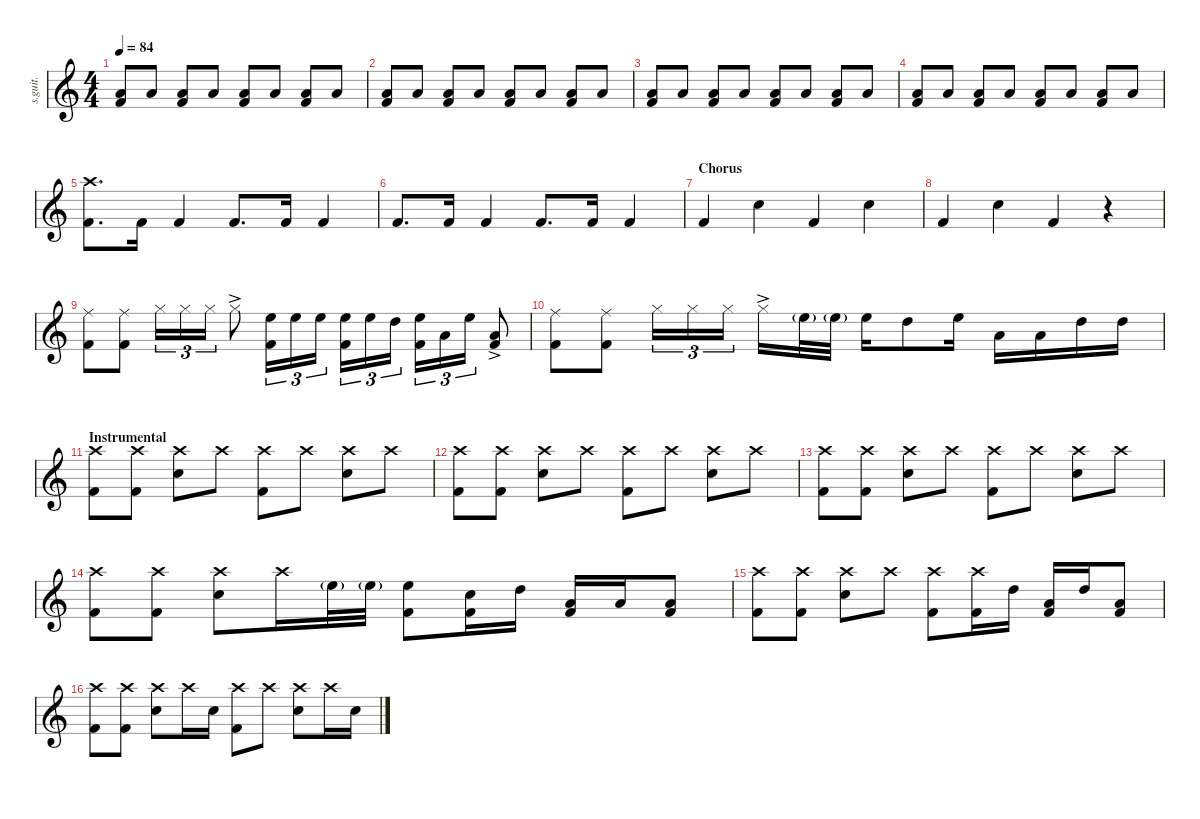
\defaultSystemsLayout 4
\hideDynamics
\bracketExtendMode nobrackets
\track ("Ringo Starr - Drums" "s.guit.") {instrument percussion}
\staff {score}
\articulation defaults
\ts (4 4)
\tempo 84
\clef g2
\ks c
("Kick (hit) 2" "Low Tom (hit)").8{lyrics (0 "") lyrics (1 "") lyrics (2 "") lyrics (3 "") lyrics (4 "") dy f} "Low Tom (hit)".8{lyrics (0 "") lyrics (1 "") lyrics (2 "") lyrics (3 "") lyrics (4 "")} ("Kick (hit) 2" "Low Tom (hit)").8{lyrics (0 "") lyrics (1 "") lyrics (2 "") lyrics (3 "") lyrics (4 "")} "Low Tom (hit)".8{lyrics (0 "") lyrics (1 "") lyrics (2 "") lyrics (3 "") lyrics (4 "")} ("Kick (hit) 2" "Low Tom (hit)").8{lyrics (0 "") lyrics (1 "") lyrics (2 "") lyrics (3 "") lyrics (4 "")} "Low Tom (hit)".8{lyrics (0 "") lyrics (1 "") lyrics (2 "") lyrics (3 "") lyrics (4 "")} ("Kick (hit) 2" "Low Tom (hit)").8{lyrics (0 "") lyrics (1 "") lyrics (2 "") lyrics (3 "") lyrics (4 "")} "Low Tom (hit)".8{lyrics (0 "") lyrics (1 "") lyrics (2 "") lyrics (3 "") lyrics (4 "")} |
("Kick (hit) 2" "Low Tom (hit)").8{lyrics (0 "") lyrics (1 "") lyrics (2 "") lyrics (3 "") lyrics (4 "")} "Low Tom (hit)".8{lyrics (0 "") lyrics (1 "") lyrics (2 "") lyrics (3 "") lyrics (4 "")} ("Kick (hit) 2" "Low Tom (hit)").8{lyrics (0 "") lyrics (1 "") lyrics (2 "") lyrics (3 "") lyrics (4 "")} "Low Tom (hit)".8{lyrics (0 "") lyrics (1 "") lyrics (2 "") lyrics (3 "") lyrics (4 "")} ("Kick (hit) 2" "Low Tom (hit)").8{lyrics (0 "") lyrics (1 "") lyrics (2 "") lyrics (3 "") lyrics (4 "")} "Low Tom (hit)".8{lyrics (0 "") lyrics (1 "") lyrics (2 "") lyrics (3 "") lyrics (4 "")} ("Kick (hit) 2" "Low Tom (hit)").8{lyrics (0 "") lyrics (1 "") lyrics (2 "") lyrics (3 "") lyrics (4 "")} "Low Tom (hit)".8{lyrics (0 "") lyrics (1 "") lyrics (2 "") lyrics (3 "") lyrics (4 "")} |
("Kick (hit) 2" "Low Tom (hit)").8{lyrics (0 "") lyrics (1 "") lyrics (2 "") lyrics (3 "") lyrics (4 "")} "Low Tom (hit)".8{lyrics (0 "") lyrics (1 "") lyrics (2 "") lyrics (3 "") lyrics (4 "")} ("Kick (hit) 2" "Low Tom (hit)").8{lyrics (0 "") lyrics (1 "") lyrics (2 "") lyrics (3 "") lyrics (4 "")} "Low Tom (hit)".8{lyrics (0 "") lyrics (1 "") lyrics (2 "") lyrics (3 "") lyrics (4 "")} ("Kick (hit) 2" "Low Tom (hit)").8{lyrics (0 "") lyrics (1 "") lyrics (2 "") lyrics (3 "") lyrics (4 "")} "Low Tom (hit)".8{lyrics (0 "") lyrics (1 "") lyrics (2 "") lyrics (3 "") lyrics (4 "")} ("Kick (hit) 2" "Low Tom (hit)").8{lyrics (0 "") lyrics (1 "") lyrics (2 "") lyrics (3 "") lyrics (4 "")} "Low Tom (hit)".8{lyrics (0 "") lyrics (1 "") lyrics (2 "") lyrics (3 "") lyrics (4 "")} |
("Kick (hit) 2" "Low Tom (hit)").8{lyrics (0 "") lyrics (1 "") lyrics (2 "") lyrics (3 "") lyrics (4 "")} "Low Tom (hit)".8{lyrics (0 "") lyrics (1 "") lyrics (2 "") lyrics (3 "") lyrics (4 "")} ("Kick (hit) 2" "Low Tom (hit)").8{lyrics (0 "") lyrics (1 "") lyrics (2 "") lyrics (3 "") lyrics (4 "")} "Low Tom (hit)".8{lyrics (0 "") lyrics (1 "") lyrics (2 "") lyrics (3 "") lyrics (4 "")} ("Kick (hit) 2" "Low Tom (hit)").8{lyrics (0 "") lyrics (1 "") lyrics (2 "") lyrics (3 "") lyrics (4 "")} "Low Tom (hit)".8{lyrics (0 "") lyrics (1 "") lyrics (2 "") lyrics (3 "") lyrics (4 "")} ("Kick (hit) 2" "Low Tom (hit)").8{lyrics (0 "") lyrics (1 "") lyrics (2 "") lyrics (3 "") lyrics (4 "")} "Low Tom (hit)".8{lyrics (0 "") lyrics (1 "") lyrics (2 "") lyrics (3 "") lyrics (4 "")} |
("Kick (hit) 2" "Crash high (hit)").8{d lyrics (0 "") lyrics (1 "") lyrics (2 "") lyrics (3 "") lyrics (4 "")} "Kick (hit) 2".16{lyrics (0 "") lyrics (1 "") lyrics (2 "") lyrics (3 "") lyrics (4 "")} "Kick (hit) 2".4{lyrics (0 "") lyrics (1 "") lyrics (2 "") lyrics (3 "") lyrics (4 "")} "Kick (hit) 2".8{d lyrics (0 "") lyrics (1 "") lyrics (2 "") lyrics (3 "") lyrics (4 "")} "Kick (hit) 2".16{lyrics (0 "") lyrics (1 "") lyrics (2 "") lyrics (3 "") lyrics (4 "")} "Kick (hit) 2".4{lyrics (0 "") lyrics (1 "") lyrics (2 "") lyrics (3 "") lyrics (4 "")} |
"Kick (hit) 2".8{d lyrics (0 "") lyrics (1 "") lyrics (2 "") lyrics (3 "") lyrics (4 "")} "Kick (hit) 2".16{lyrics (0 "") lyrics (1 "") lyrics (2 "") lyrics (3 "") lyrics (4 "")} "Kick (hit) 2".4{lyrics (0 "") lyrics (1 "") lyrics (2 "") lyrics (3 "") lyrics (4 "")} "Kick (hit) 2".8{d lyrics (0 "") lyrics (1 "") lyrics (2 "") lyrics (3 "") lyrics (4 "")} "Kick (hit) 2".16{lyrics (0 "") lyrics (1 "") lyrics (2 "") lyrics (3 "") lyrics (4 "")} "Kick (hit) 2".4{lyrics (0 "") lyrics (1 "") lyrics (2 "") lyrics (3 "") lyrics (4 "")} |
\section ("" "Chorus")
"Kick (hit) 2".4{lyrics (0 "") lyrics (1 "") lyrics (2 "") lyrics (3 "") lyrics (4 "")} "Snare (hit) 2".4{lyrics (0 "") lyrics (1 "") lyrics (2 "") lyrics (3 "") lyrics (4 "")} "Kick (hit) 2".4{lyrics (0 "") lyrics (1 "") lyrics (2 "") lyrics (3 "") lyrics (4 "")} "Snare (hit) 2".4{lyrics (0 "") lyrics (1 "") lyrics (2 "") lyrics (3 "") lyrics (4 "")} |
"Kick (hit) 2".4{lyrics (0 "") lyrics (1 "") lyrics (2 "") lyrics (3 "") lyrics (4 "")} "Snare (hit) 2".4{lyrics (0 "") lyrics (1 "") lyrics (2 "") lyrics (3 "") lyrics (4 "")} "Kick (hit) 2".4{lyrics (0 "") lyrics (1 "") lyrics (2 "") lyrics (3 "") lyrics (4 "")} r.4 |
("Ride (middle)" "Kick (hit) 2").8{lyrics (0 "") lyrics (1 "") lyrics (2 "") lyrics (3 "") lyrics (4 "")} ("Ride (middle)" "Kick (hit) 2").8{lyrics (0 "") lyrics (1 "") lyrics (2 "") lyrics (3 "") lyrics (4 "")} "Hi-Hat (closed)".16{tu (3 2) lyrics (0 "") lyrics (1 "") lyrics (2 "") lyrics (3 "") lyrics (4 "")} "Hi-Hat (closed)".16{tu (3 2) lyrics (0 "") lyrics (1 "") lyrics (2 "") lyrics (3 "") lyrics (4 "")} "Hi-Hat (closed)".16{tu (3 2) lyrics (0 "") lyrics (1 "") lyrics (2 "") lyrics (3 "") lyrics (4 "")} "Hi-Hat (closed)"{ac}.8{lyrics (0 "") lyrics (1 "") lyrics (2 "") lyrics (3 "") lyrics (4 "")} ("High Floor Tom (hit)" "Kick (hit) 2").16{tu (3 2) lyrics (0 "") lyrics (1 "") lyrics (2 "") lyrics (3 "") lyrics (4 "")} "High Floor Tom (hit)".16{tu (3 2) lyrics (0 "") lyrics (1 "") lyrics (2 "") lyrics (3 "") lyrics (4 "")} "High Floor Tom (hit)".16{tu (3 2) lyrics (0 "") lyrics (1 "") lyrics (2 "") lyrics (3 "") lyrics (4 "")} ("High Floor Tom (hit)" "Kick (hit) 2").16{tu (3 2) lyrics (0 "") lyrics (1 "") lyrics (2 "") lyrics (3 "") lyrics (4 "")} "High Floor Tom (hit)".16{tu (3 2) lyrics (0 "") lyrics (1 "") lyrics (2 "") lyrics (3 "") lyrics (4 "")} "High Tom (hit)".16{tu (3 2) lyrics (0 "") lyrics (1 "") lyrics (2 "") lyrics (3 "") lyrics (4 "")} ("High Floor Tom (hit)" "Kick (hit) 2").16{tu (3 2) lyrics (0 "") lyrics (1 "") lyrics (2 "") lyrics (3 "") lyrics (4 "")} "Low Tom (hit)".16{tu (3 2) lyrics (0 "") lyrics (1 "") lyrics (2 "") lyrics (3 "") lyrics (4 "")} "High Floor Tom (hit)".16{tu (3 2) lyrics (0 "") lyrics (1 "") lyrics (2 "") lyrics (3 "") lyrics (4 "")} ("Low Tom (hit)"{ac} "Kick (hit) 2").8{lyrics (0 "") lyrics (1 "") lyrics (2 "") lyrics (3 "") lyrics (4 "")} |
("Ride (middle)" "Kick (hit) 2").8{lyrics (0 "") lyrics (1 "") lyrics (2 "") lyrics (3 "") lyrics (4 "")} ("Ride (middle)" "Kick (hit) 2").8{lyrics (0 "") lyrics (1 "") lyrics (2 "") lyrics (3 "") lyrics (4 "")} "Hi-Hat (closed)".16{tu (3 2) lyrics (0 "") lyrics (1 "") lyrics (2 "") lyrics (3 "") lyrics (4 "")} "Hi-Hat (closed)".16{tu (3 2) lyrics (0 "") lyrics (1 "") lyrics (2 "") lyrics (3 "") lyrics (4 "")} "Hi-Hat (closed)".16{tu (3 2) lyrics (0 "") lyrics (1 "") lyrics (2 "") lyrics (3 "") lyrics (4 "")} "Hi-Hat (closed)"{ac}.16{lyrics (0 "") lyrics (1 "") lyrics (2 "") lyrics (3 "") lyrics (4 "")} "High Floor Tom (hit)"{g}.32{lyrics (0 "") lyrics (1 "") lyrics (2 "") lyrics (3 "") lyrics (4 "") dy p} "High Floor Tom (hit)"{g}.32{lyrics (0 "") lyrics (1 "") lyrics (2 "") lyrics (3 "") lyrics (4 "")} "High Floor Tom (hit)".16{lyrics (0 "") lyrics (1 "") lyrics (2 "") lyrics (3 "") lyrics (4 "") dy f} "High Tom (hit)".8{lyrics (0 "") lyrics (1 "") lyrics (2 "") lyrics (3 "") lyrics (4 "")} "High Floor Tom (hit)".16{lyrics (0 "") lyrics (1 "") lyrics (2 "") lyrics (3 "") lyrics (4 "")} "Low Tom (hit)".16{lyrics (0 "") lyrics (1 "") lyrics (2 "") lyrics (3 "") lyrics (4 "")} "Low Tom (hit)".16{lyrics (0 "") lyrics (1 "") lyrics (2 "") lyrics (3 "") lyrics (4 "")} "High Tom (hit)".16{lyrics (0 "") lyrics (1 "") lyrics (2 "") lyrics (3 "") lyrics (4 "")} "High Tom (hit)".16{lyrics (0 "") lyrics (1 "") lyrics (2 "") lyrics (3 "") lyrics (4 "")} |
\section ("" "Instrumental")
("Crash high (hit)" "Kick (hit) 2").8{lyrics (0 "") lyrics (1 "") lyrics (2 "") lyrics (3 "") lyrics (4 "")} ("Kick (hit) 2" "Crash high (hit)").8{lyrics (0 "") lyrics (1 "") lyrics (2 "") lyrics (3 "") lyrics (4 "")} ("Crash high (hit)" "Snare (hit) 2").8{lyrics (0 "") lyrics (1 "") lyrics (2 "") lyrics (3 "") lyrics (4 "")} "Crash high (hit)".8{lyrics (0 "") lyrics (1 "") lyrics (2 "") lyrics (3 "") lyrics (4 "") dy mf} ("Crash high (hit)" "Kick (hit) 2").8{lyrics (0 "") lyrics (1 "") lyrics (2 "") lyrics (3 "") lyrics (4 "") dy f} "Crash high (hit)".8{lyrics (0 "") lyrics (1 "") lyrics (2 "") lyrics (3 "") lyrics (4 "") dy mf} ("Crash high (hit)" "Snare (hit) 2").8{lyrics (0 "") lyrics (1 "") lyrics (2 "") lyrics (3 "") lyrics (4 "") dy f} "Crash high (hit)".8{lyrics (0 "") lyrics (1 "") lyrics (2 "") lyrics (3 "") lyrics (4 "") dy mf} |
("Crash high (hit)" "Kick (hit) 2").8{lyrics (0 "") lyrics (1 "") lyrics (2 "") lyrics (3 "") lyrics (4 "") dy f} ("Kick (hit) 2" "Crash high (hit)").8{lyrics (0 "") lyrics (1 "") lyrics (2 "") lyrics (3 "") lyrics (4 "")} ("Crash high (hit)" "Snare (hit) 2").8{lyrics (0 "") lyrics (1 "") lyrics (2 "") lyrics (3 "") lyrics (4 "")} "Crash high (hit)".8{lyrics (0 "") lyrics (1 "") lyrics (2 "") lyrics (3 "") lyrics (4 "") dy mf} ("Crash high (hit)" "Kick (hit) 2").8{lyrics (0 "") lyrics (1 "") lyrics (2 "") lyrics (3 "") lyrics (4 "") dy f} "Crash high (hit)".8{lyrics (0 "") lyrics (1 "") lyrics (2 "") lyrics (3 "") lyrics (4 "") dy mf} ("Crash high (hit)" "Snare (hit) 2").8{lyrics (0 "") lyrics (1 "") lyrics (2 "") lyrics (3 "") lyrics (4 "") dy f} "Crash high (hit)".8{lyrics (0 "") lyrics (1 "") lyrics (2 "") lyrics (3 "") lyrics (4 "") dy mf} |
("Crash high (hit)" "Kick (hit) 2").8{lyrics (0 "") lyrics (1 "") lyrics (2 "") lyrics (3 "") lyrics (4 "") dy f} ("Kick (hit) 2" "Crash high (hit)").8{lyrics (0 "") lyrics (1 "") lyrics (2 "") lyrics (3 "") lyrics (4 "")} ("Crash high (hit)" "Snare (hit) 2").8{lyrics (0 "") lyrics (1 "") lyrics (2 "") lyrics (3 "") lyrics (4 "")} "Crash high (hit)".8{lyrics (0 "") lyrics (1 "") lyrics (2 "") lyrics (3 "") lyrics (4 "") dy mf} ("Crash high (hit)" "Kick (hit) 2").8{lyrics (0 "") lyrics (1 "") lyrics (2 "") lyrics (3 "") lyrics (4 "") dy f} "Crash high (hit)".8{lyrics (0 "") lyrics (1 "") lyrics (2 "") lyrics (3 "") lyrics (4 "") dy mf} ("Crash high (hit)" "Snare (hit) 2").8{lyrics (0 "") lyrics (1 "") lyrics (2 "") lyrics (3 "") lyrics (4 "") dy f} "Crash high (hit)".8{lyrics (0 "") lyrics (1 "") lyrics (2 "") lyrics (3 "") lyrics (4 "") dy mf} |
("Crash high (hit)" "Kick (hit) 2").8{lyrics (0 "") lyrics (1 "") lyrics (2 "") lyrics (3 "") lyrics (4 "") dy f} ("Kick (hit) 2" "Crash high (hit)").8{lyrics (0 "") lyrics (1 "") lyrics (2 "") lyrics (3 "") lyrics (4 "")} ("Crash high (hit)" "Snare (hit) 2").8{lyrics (0 "") lyrics (1 "") lyrics (2 "") lyrics (3 "") lyrics (4 "")} "Crash high (hit)".16{lyrics (0 "") lyrics (1 "") lyrics (2 "") lyrics (3 "") lyrics (4 "") dy mf} "High Floor Tom (hit)"{g}.32{lyrics (0 "") lyrics (1 "") lyrics (2 "") lyrics (3 "") lyrics (4 "") dy p} "High Floor Tom (hit)"{g}.32{lyrics (0 "") lyrics (1 "") lyrics (2 "") lyrics (3 "") lyrics (4 "")} ("High Floor Tom (hit)" "Kick (hit) 2").8{lyrics (0 "") lyrics (1 "") lyrics (2 "") lyrics (3 "") lyrics (4 "") dy f} ("Kick (hit) 2" "Snare (hit) 2").16{lyrics (0 "") lyrics (1 "") lyrics (2 "") lyrics (3 "") lyrics (4 "")} "High Tom (hit)".16{lyrics (0 "") lyrics (1 "") lyrics (2 "") lyrics (3 "") lyrics (4 "")} ("Kick (hit) 2" "Low Tom (hit)").16{lyrics (0 "") lyrics (1 "") lyrics (2 "") lyrics (3 "") lyrics (4 "")} "Low Tom (hit)".16{lyrics (0 "") lyrics (1 "") lyrics (2 "") lyrics (3 "") lyrics (4 "")} ("Kick (hit) 2" "Low Tom (hit)").8{lyrics (0 "") lyrics (1 "") lyrics (2 "") lyrics (3 "") lyrics (4 "")} |
("Crash high (hit)" "Kick (hit) 2").8{lyrics (0 "") lyrics (1 "") lyrics (2 "") lyrics (3 "") lyrics (4 "")} ("Kick (hit) 2" "Crash high (hit)").8{lyrics (0 "") lyrics (1 "") lyrics (2 "") lyrics (3 "") lyrics (4 "")} ("Crash high (hit)" "Snare (hit) 2").8{lyrics (0 "") lyrics (1 "") lyrics (2 "") lyrics (3 "") lyrics (4 "")} "Crash high (hit)".8{lyrics (0 "") lyrics (1 "") lyrics (2 "") lyrics (3 "") lyrics (4 "") dy mf} ("Crash high (hit)" "Kick (hit) 2").8{lyrics (0 "") lyrics (1 "") lyrics (2 "") lyrics (3 "") lyrics (4 "") dy f} ("Kick (hit) 2" "Crash high (hit)").16{lyrics (0 "") lyrics (1 "") lyrics (2 "") lyrics (3 "") lyrics (4 "")} "High Tom (hit)".16{lyrics (0 "") lyrics (1 "") lyrics (2 "") lyrics (3 "") lyrics (4 "")} ("Kick (hit) 2" "Low Tom (hit)").16{lyrics (0 "") lyrics (1 "") lyrics (2 "") lyrics (3 "") lyrics (4 "")} "High Tom (hit)".16{lyrics (0 "") lyrics (1 "") lyrics (2 "") lyrics (3 "") lyrics (4 "")} ("Kick (hit) 2" "Low Tom (hit)").8{lyrics (0 "") lyrics (1 "") lyrics (2 "") lyrics (3 "") lyrics (4 "")} |
("Crash high (hit)" "Kick (hit) 2").8{lyrics (0 "") lyrics (1 "") lyrics (2 "") lyrics (3 "") lyrics (4 "")} ("Kick (hit) 2" "Crash high (hit)").8{lyrics (0 "") lyrics (1 "") lyrics (2 "") lyrics (3 "") lyrics (4 "")} ("Crash high (hit)" "Snare (hit) 2").8{lyrics (0 "") lyrics (1 "") lyrics (2 "") lyrics (3 "") lyrics (4 "")} "Crash high (hit)".16{lyrics (0 "") lyrics (1 "") lyrics (2 "") lyrics (3 "") lyrics (4 "") dy mf} "Snare (hit) 2".16{lyrics (0 "") lyrics (1 "") lyrics (2 "") lyrics (3 "") lyrics (4 "") dy f} ("Crash high (hit)" "Kick (hit) 2").8{lyrics (0 "") lyrics (1 "") lyrics (2 "") lyrics (3 "") lyrics (4 "")} "Crash high (hit)".8{lyrics (0 "") lyrics (1 "") lyrics (2 "") lyrics (3 "") lyrics (4 "") dy mf} ("Crash high (hit)" "Snare (hit) 2").8{lyrics (0 "") lyrics (1 "") lyrics (2 "") lyrics (3 "") lyrics (4 "") dy f} "Crash high (hit)".16{lyrics (0 "") lyrics (1 "") lyrics (2 "") lyrics (3 "") lyrics (4 "") dy mf} "Snare (hit) 2".16{lyrics (0 "") lyrics (1 "") lyrics (2 "") lyrics (3 "") lyrics (4 "") dy f}
